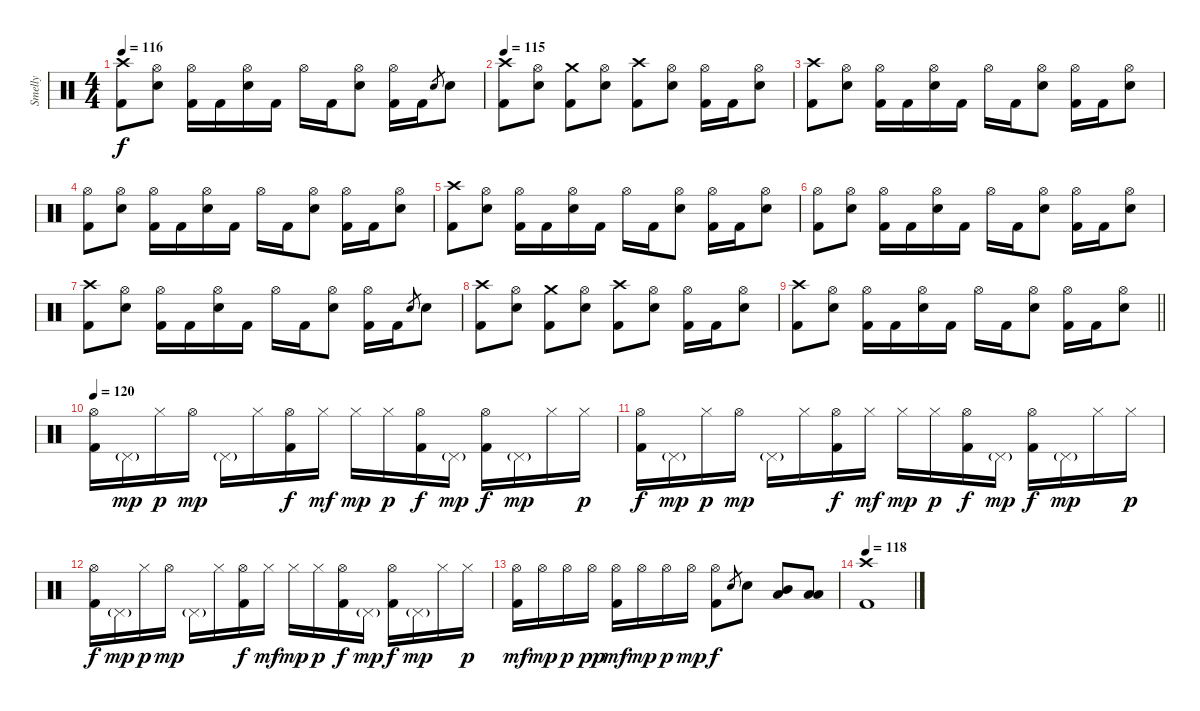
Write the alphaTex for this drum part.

\track ("Smelly" "Smelly") {instrument percussion}
\staff {score}
\articulation defaults
\ts (4 4)
\tempo 116
\clef neutral
\ks c
("Crash high (hit)" "Kick (hit) 2").8{dy f} ("Hi-Hat (open)" "Electric Snare (hit)").8 ("Hi-Hat (open)" "Kick (hit) 2").16 "Kick (hit) 2".16 ("Hi-Hat (open)" "Electric Snare (hit)").16 "Kick (hit) 2".16 "Hi-Hat (open)".16 "Kick (hit) 2".16 ("Hi-Hat (open)" "Electric Snare (hit)").8 ("Hi-Hat (open)" "Kick (hit) 2").16 "Kick (hit) 2".16 "Electric Snare (hit)".8{gr} "Electric Snare (hit)".8 |
\tempo 115
("Crash high (hit)" "Kick (hit) 2").8 ("Hi-Hat (open)" "Electric Snare (hit)").8 ("Crash medium (hit)" "Kick (hit) 2").8 ("Hi-Hat (open)" "Electric Snare (hit)").8 ("Crash high (hit)" "Kick (hit) 2").8 ("Hi-Hat (open)" "Electric Snare (hit)").8 ("Hi-Hat (open)" "Kick (hit) 2").16 "Kick (hit) 2".16 ("Hi-Hat (open)" "Electric Snare (hit)").8 |
("Crash high (hit)" "Kick (hit) 2").8 ("Hi-Hat (open)" "Electric Snare (hit)").8 ("Hi-Hat (open)" "Kick (hit) 2").16 "Kick (hit) 2".16 ("Hi-Hat (open)" "Electric Snare (hit)").16 "Kick (hit) 2".16 "Hi-Hat (open)".16 "Kick (hit) 2".16 ("Hi-Hat (open)" "Electric Snare (hit)").8 ("Hi-Hat (open)" "Kick (hit) 2").16 "Kick (hit) 2".16 ("Hi-Hat (open)" "Electric Snare (hit)").8 |
("Hi-Hat (open)" "Kick (hit) 2").8 ("Hi-Hat (open)" "Electric Snare (hit)").8 ("Hi-Hat (open)" "Kick (hit) 2").16 "Kick (hit) 2".16 ("Hi-Hat (open)" "Electric Snare (hit)").16 "Kick (hit) 2".16 "Hi-Hat (open)".16 "Kick (hit) 2".16 ("Hi-Hat (open)" "Electric Snare (hit)").8 ("Hi-Hat (open)" "Kick (hit) 2").16 "Kick (hit) 2".16 ("Hi-Hat (open)" "Electric Snare (hit)").8 |
("Crash high (hit)" "Kick (hit) 2").8 ("Hi-Hat (open)" "Electric Snare (hit)").8 ("Hi-Hat (open)" "Kick (hit) 2").16 "Kick (hit) 2".16 ("Hi-Hat (open)" "Electric Snare (hit)").16 "Kick (hit) 2".16 "Hi-Hat (open)".16 "Kick (hit) 2".16 ("Hi-Hat (open)" "Electric Snare (hit)").8 ("Hi-Hat (open)" "Kick (hit) 2").16 "Kick (hit) 2".16 ("Hi-Hat (open)" "Electric Snare (hit)").8 |
("Hi-Hat (open)" "Kick (hit) 2").8 ("Hi-Hat (open)" "Electric Snare (hit)").8 ("Hi-Hat (open)" "Kick (hit) 2").16 "Kick (hit) 2".16 ("Hi-Hat (open)" "Electric Snare (hit)").16 "Kick (hit) 2".16 "Hi-Hat (open)".16 "Kick (hit) 2".16 ("Hi-Hat (open)" "Electric Snare (hit)").8 ("Hi-Hat (open)" "Kick (hit) 2").16 "Kick (hit) 2".16 ("Hi-Hat (open)" "Electric Snare (hit)").8 |
("Crash high (hit)" "Kick (hit) 2").8 ("Hi-Hat (open)" "Electric Snare (hit)").8 ("Hi-Hat (open)" "Kick (hit) 2").16 "Kick (hit) 2".16 ("Hi-Hat (open)" "Electric Snare (hit)").16 "Kick (hit) 2".16 "Hi-Hat (open)".16 "Kick (hit) 2".16 ("Hi-Hat (open)" "Electric Snare (hit)").8 ("Hi-Hat (open)" "Kick (hit) 2").16 "Kick (hit) 2".16 "Electric Snare (hit)".8{gr} "Electric Snare (hit)".8 |
("Crash high (hit)" "Kick (hit) 2").8 ("Hi-Hat (open)" "Electric Snare (hit)").8 ("Crash medium (hit)" "Kick (hit) 2").8 ("Hi-Hat (open)" "Electric Snare (hit)").8 ("Crash high (hit)" "Kick (hit) 2").8 ("Hi-Hat (open)" "Electric Snare (hit)").8 ("Hi-Hat (open)" "Kick (hit) 2").16 "Kick (hit) 2".16 ("Hi-Hat (open)" "Electric Snare (hit)").8 |
\barLineRight lightlight
("Crash high (hit)" "Kick (hit) 2").8 ("Hi-Hat (open)" "Electric Snare (hit)").8 ("Hi-Hat (open)" "Kick (hit) 2").16 "Kick (hit) 2".16 ("Hi-Hat (open)" "Electric Snare (hit)").16 "Kick (hit) 2".16 "Hi-Hat (open)".16 "Kick (hit) 2".16 ("Hi-Hat (open)" "Electric Snare (hit)").8 ("Hi-Hat (open)" "Kick (hit) 2").16 "Kick (hit) 2".16 ("Hi-Hat (open)" "Electric Snare (hit)").8 |
\section ("" "")
\tempo 120
("Hi-Hat (open)" "Kick (hit) 2").16 "Pedal Hi-Hat (hit)"{g}.16{dy mp} "Hi-Hat (closed)".16{dy p} "Hi-Hat (open)".16{dy mp} "Pedal Hi-Hat (hit)"{g}.16 "Hi-Hat (closed)".16 ("Hi-Hat (open)" "Kick (hit) 2").16{dy f} "Hi-Hat (closed)".16{dy mf} "Hi-Hat (closed)".16{dy mp} "Hi-Hat (closed)".16{dy p} ("Hi-Hat (open)" "Kick (hit) 2").16{dy f} "Pedal Hi-Hat (hit)"{g}.16{dy mp} ("Hi-Hat (open)" "Kick (hit) 2").16{dy f} "Pedal Hi-Hat (hit)"{g}.16{dy mp} "Hi-Hat (closed)".16 "Hi-Hat (closed)".16{dy p} |
("Hi-Hat (open)" "Kick (hit) 2").16{dy f} "Pedal Hi-Hat (hit)"{g}.16{dy mp} "Hi-Hat (closed)".16{dy p} "Hi-Hat (open)".16{dy mp} "Pedal Hi-Hat (hit)"{g}.16 "Hi-Hat (closed)".16 ("Hi-Hat (open)" "Kick (hit) 2").16{dy f} "Hi-Hat (closed)".16{dy mf} "Hi-Hat (closed)".16{dy mp} "Hi-Hat (closed)".16{dy p} ("Hi-Hat (open)" "Kick (hit) 2").16{dy f} "Pedal Hi-Hat (hit)"{g}.16{dy mp} ("Hi-Hat (open)" "Kick (hit) 2").16{dy f} "Pedal Hi-Hat (hit)"{g}.16{dy mp} "Hi-Hat (closed)".16 "Hi-Hat (closed)".16{dy p} |
("Hi-Hat (open)" "Kick (hit) 2").16{dy f} "Pedal Hi-Hat (hit)"{g}.16{dy mp} "Hi-Hat (closed)".16{dy p} "Hi-Hat (open)".16{dy mp} "Pedal Hi-Hat (hit)"{g}.16 "Hi-Hat (closed)".16 ("Hi-Hat (open)" "Kick (hit) 2").16{dy f} "Hi-Hat (closed)".16{dy mf} "Hi-Hat (closed)".16{dy mp} "Hi-Hat (closed)".16{dy p} ("Hi-Hat (open)" "Kick (hit) 2").16{dy f} "Pedal Hi-Hat (hit)"{g}.16{dy mp} ("Hi-Hat (open)" "Kick (hit) 2").16{dy f} "Pedal Hi-Hat (hit)"{g}.16{dy mp} "Hi-Hat (closed)".16 "Hi-Hat (closed)".16{dy p} |
("Hi-Hat (open)" "Kick (hit) 2").16{dy mf} "Hi-Hat (open)".16{dy mp} "Hi-Hat (open)".16{dy p} "Hi-Hat (open)".16{dy pp} ("Hi-Hat (open)" "Kick (hit) 2").16{dy mf} "Hi-Hat (open)".16{dy mp} "Hi-Hat (open)".16{dy p} "Hi-Hat (open)".16{dy mp} ("Hi-Hat (open)" "Kick (hit) 2").8{dy f} "Electric Snare (hit)".8{gr} "Electric Snare (hit)".8 ("Mid Tom (hit)" "Low Tom (hit)").8 ("Low Tom (hit)" "Low Floor Tom (hit)").8 |
\tempo 118
("Crash high (hit)" "Kick (hit) 2").1
